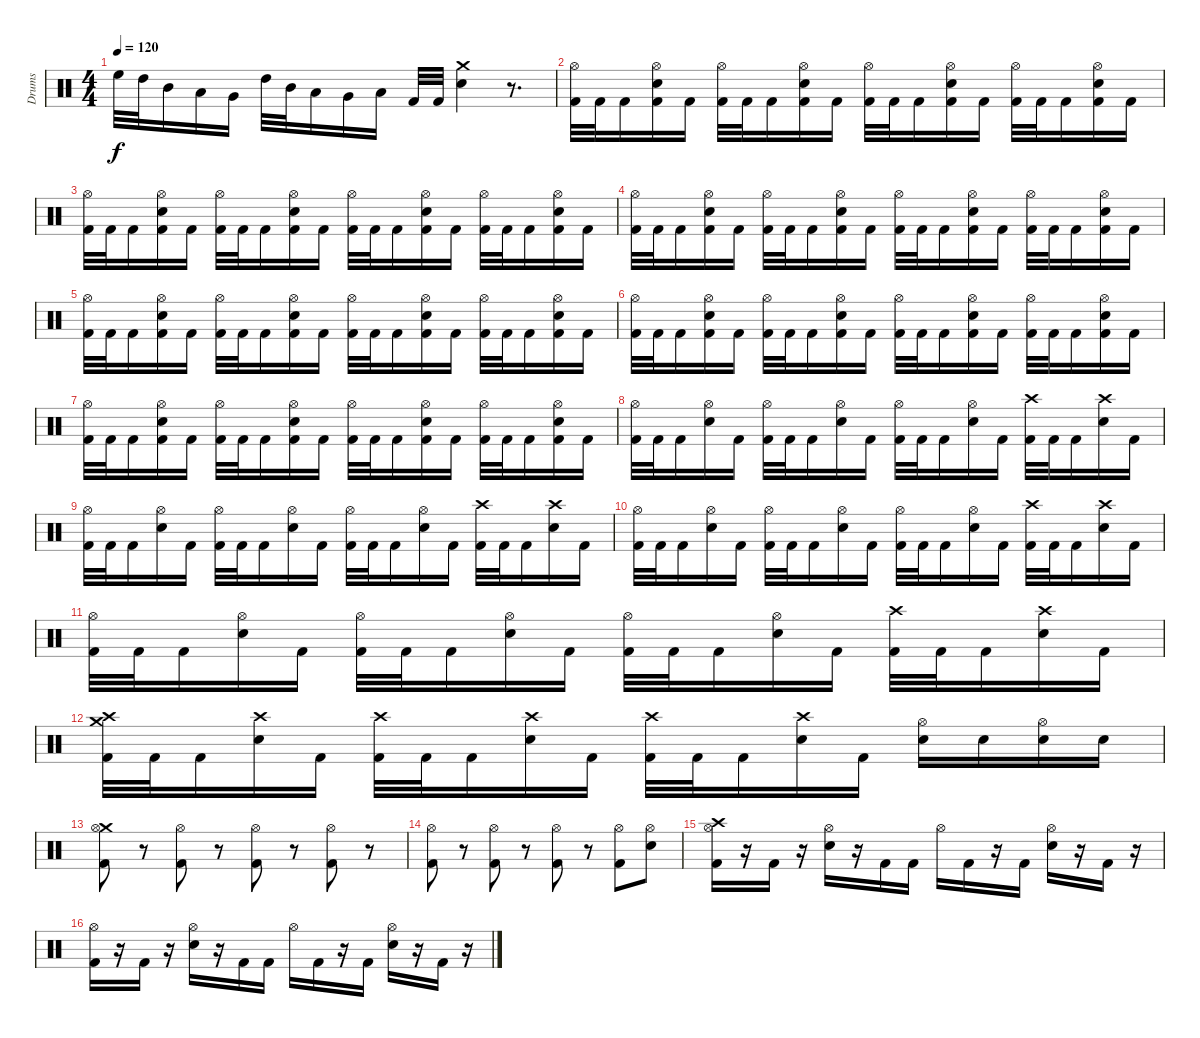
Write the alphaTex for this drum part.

\track ("Drums" "Drums") {instrument percussion}
\staff {score}
\articulation defaults
\ts (4 4)
\tempo 120
\clef neutral
\ks c "High Floor Tom (hit)".32{dy f} "High Tom (hit)".32 "Mid Tom (hit)".16 "Low Tom (hit)".16 "Very Low Tom (hit)".16 "High Tom (hit)".32 "Mid Tom (hit)".32 "Low Tom (hit)".16 "Very Low Tom (hit)".16 "Low Floor Tom (hit)".16 "Kick (hit) 2".32 "Kick (hit) 2".32
("Crash medium (hit)" "Electric Snare (hit)").4 r.8{d} |
("Hi-Hat (open)" "Kick (hit) 2").32 "Kick (hit) 2".32 "Kick (hit) 2".16 ("Hi-Hat (open)" "Electric Snare (hit)" "Kick (hit) 2").16 "Kick (hit) 2".16 ("Hi-Hat (open)" "Kick (hit) 2").32 "Kick (hit) 2".32 "Kick (hit) 2".16 ("Hi-Hat (open)" "Electric Snare (hit)" "Kick (hit) 2").16 "Kick (hit) 2".16 ("Hi-Hat (open)" "Kick (hit) 2").32 "Kick (hit) 2".32 "Kick (hit) 2".16 ("Hi-Hat (open)" "Electric Snare (hit)" "Kick (hit) 2").16 "Kick (hit) 2".16 ("Hi-Hat (open)" "Kick (hit) 2").32 "Kick (hit) 2".32 "Kick (hit) 2".16 ("Hi-Hat (open)" "Electric Snare (hit)" "Kick (hit) 2").16 "Kick (hit) 2".16 |
("Hi-Hat (open)" "Kick (hit) 2").32 "Kick (hit) 2".32 "Kick (hit) 2".16 ("Hi-Hat (open)" "Electric Snare (hit)" "Kick (hit) 2").16 "Kick (hit) 2".16 ("Hi-Hat (open)" "Kick (hit) 2").32 "Kick (hit) 2".32 "Kick (hit) 2".16 ("Hi-Hat (open)" "Electric Snare (hit)" "Kick (hit) 2").16 "Kick (hit) 2".16 ("Hi-Hat (open)" "Kick (hit) 2").32 "Kick (hit) 2".32 "Kick (hit) 2".16 ("Hi-Hat (open)" "Electric Snare (hit)" "Kick (hit) 2").16 "Kick (hit) 2".16 ("Hi-Hat (open)" "Kick (hit) 2").32 "Kick (hit) 2".32 "Kick (hit) 2".16 ("Hi-Hat (open)" "Electric Snare (hit)" "Kick (hit) 2").16 "Kick (hit) 2".16 |
("Hi-Hat (open)" "Kick (hit) 2").32 "Kick (hit) 2".32 "Kick (hit) 2".16 ("Hi-Hat (open)" "Electric Snare (hit)" "Kick (hit) 2").16 "Kick (hit) 2".16 ("Hi-Hat (open)" "Kick (hit) 2").32 "Kick (hit) 2".32 "Kick (hit) 2".16 ("Hi-Hat (open)" "Electric Snare (hit)" "Kick (hit) 2").16 "Kick (hit) 2".16 ("Hi-Hat (open)" "Kick (hit) 2").32 "Kick (hit) 2".32 "Kick (hit) 2".16 ("Hi-Hat (open)" "Electric Snare (hit)" "Kick (hit) 2").16 "Kick (hit) 2".16 ("Hi-Hat (open)" "Kick (hit) 2").32 "Kick (hit) 2".32 "Kick (hit) 2".16 ("Hi-Hat (open)" "Electric Snare (hit)" "Kick (hit) 2").16 "Kick (hit) 2".16 |
("Hi-Hat (open)" "Kick (hit) 2").32 "Kick (hit) 2".32 "Kick (hit) 2".16 ("Hi-Hat (open)" "Electric Snare (hit)" "Kick (hit) 2").16 "Kick (hit) 2".16 ("Hi-Hat (open)" "Kick (hit) 2").32 "Kick (hit) 2".32 "Kick (hit) 2".16 ("Hi-Hat (open)" "Electric Snare (hit)" "Kick (hit) 2").16 "Kick (hit) 2".16 ("Hi-Hat (open)" "Kick (hit) 2").32 "Kick (hit) 2".32 "Kick (hit) 2".16 ("Hi-Hat (open)" "Electric Snare (hit)" "Kick (hit) 2").16 "Kick (hit) 2".16 ("Hi-Hat (open)" "Kick (hit) 2").32 "Kick (hit) 2".32 "Kick (hit) 2".16 ("Hi-Hat (open)" "Electric Snare (hit)" "Kick (hit) 2").16 "Kick (hit) 2".16 |
("Hi-Hat (open)" "Kick (hit) 2").32 "Kick (hit) 2".32 "Kick (hit) 2".16 ("Hi-Hat (open)" "Electric Snare (hit)" "Kick (hit) 2").16 "Kick (hit) 2".16 ("Hi-Hat (open)" "Kick (hit) 2").32 "Kick (hit) 2".32 "Kick (hit) 2".16 ("Hi-Hat (open)" "Electric Snare (hit)" "Kick (hit) 2").16 "Kick (hit) 2".16 ("Hi-Hat (open)" "Kick (hit) 2").32 "Kick (hit) 2".32 "Kick (hit) 2".16 ("Hi-Hat (open)" "Electric Snare (hit)" "Kick (hit) 2").16 "Kick (hit) 2".16 ("Hi-Hat (open)" "Kick (hit) 2").32 "Kick (hit) 2".32 "Kick (hit) 2".16 ("Hi-Hat (open)" "Electric Snare (hit)" "Kick (hit) 2").16 "Kick (hit) 2".16 |
("Hi-Hat (open)" "Kick (hit) 2").32 "Kick (hit) 2".32 "Kick (hit) 2".16 ("Hi-Hat (open)" "Electric Snare (hit)" "Kick (hit) 2").16 "Kick (hit) 2".16 ("Hi-Hat (open)" "Kick (hit) 2").32 "Kick (hit) 2".32 "Kick (hit) 2".16 ("Hi-Hat (open)" "Electric Snare (hit)" "Kick (hit) 2").16 "Kick (hit) 2".16 ("Hi-Hat (open)" "Kick (hit) 2").32 "Kick (hit) 2".32 "Kick (hit) 2".16 ("Hi-Hat (open)" "Electric Snare (hit)" "Kick (hit) 2").16 "Kick (hit) 2".16 ("Hi-Hat (open)" "Kick (hit) 2").32 "Kick (hit) 2".32 "Kick (hit) 2".16 ("Hi-Hat (open)" "Electric Snare (hit)" "Kick (hit) 2").16 "Kick (hit) 2".16 |
("Hi-Hat (open)" "Kick (hit) 2").32 "Kick (hit) 2".32 "Kick (hit) 2".16 ("Hi-Hat (open)" "Electric Snare (hit)").16 "Kick (hit) 2".16 ("Hi-Hat (open)" "Kick (hit) 2").32 "Kick (hit) 2".32 "Kick (hit) 2".16 ("Hi-Hat (open)" "Electric Snare (hit)").16 "Kick (hit) 2".16 ("Hi-Hat (open)" "Kick (hit) 2").32 "Kick (hit) 2".32 "Kick (hit) 2".16 ("Hi-Hat (open)" "Electric Snare (hit)").16 "Kick (hit) 2".16 ("Crash high (hit)" "Kick (hit) 2").32 "Kick (hit) 2".32 "Kick (hit) 2".16 ("Crash high (hit)" "Electric Snare (hit)").16 "Kick (hit) 2".16 |
("Hi-Hat (open)" "Kick (hit) 2").32 "Kick (hit) 2".32 "Kick (hit) 2".16 ("Hi-Hat (open)" "Electric Snare (hit)").16 "Kick (hit) 2".16 ("Hi-Hat (open)" "Kick (hit) 2").32 "Kick (hit) 2".32 "Kick (hit) 2".16 ("Hi-Hat (open)" "Electric Snare (hit)").16 "Kick (hit) 2".16 ("Hi-Hat (open)" "Kick (hit) 2").32 "Kick (hit) 2".32 "Kick (hit) 2".16 ("Hi-Hat (open)" "Electric Snare (hit)").16 "Kick (hit) 2".16 ("Crash high (hit)" "Kick (hit) 2").32 "Kick (hit) 2".32 "Kick (hit) 2".16 ("Crash high (hit)" "Electric Snare (hit)").16 "Kick (hit) 2".16 |
("Hi-Hat (open)" "Kick (hit) 2").32 "Kick (hit) 2".32 "Kick (hit) 2".16 ("Hi-Hat (open)" "Electric Snare (hit)").16 "Kick (hit) 2".16 ("Hi-Hat (open)" "Kick (hit) 2").32 "Kick (hit) 2".32 "Kick (hit) 2".16 ("Hi-Hat (open)" "Electric Snare (hit)").16 "Kick (hit) 2".16 ("Hi-Hat (open)" "Kick (hit) 2").32 "Kick (hit) 2".32 "Kick (hit) 2".16 ("Hi-Hat (open)" "Electric Snare (hit)").16 "Kick (hit) 2".16 ("Crash high (hit)" "Kick (hit) 2").32 "Kick (hit) 2".32 "Kick (hit) 2".16 ("Crash high (hit)" "Electric Snare (hit)").16 "Kick (hit) 2".16 |
("Hi-Hat (open)" "Kick (hit) 2").32 "Kick (hit) 2".32 "Kick (hit) 2".16 ("Hi-Hat (open)" "Electric Snare (hit)").16 "Kick (hit) 2".16 ("Hi-Hat (open)" "Kick (hit) 2").32 "Kick (hit) 2".32 "Kick (hit) 2".16 ("Hi-Hat (open)" "Electric Snare (hit)").16 "Kick (hit) 2".16 ("Hi-Hat (open)" "Kick (hit) 2").32 "Kick (hit) 2".32 "Kick (hit) 2".16 ("Hi-Hat (open)" "Electric Snare (hit)").16 "Kick (hit) 2".16 ("Crash high (hit)" "Kick (hit) 2").32 "Kick (hit) 2".32 "Kick (hit) 2".16 ("Crash high (hit)" "Electric Snare (hit)").16 "Kick (hit) 2".16 |
("Crash medium (hit)" "Crash high (hit)" "Kick (hit) 2").32 "Kick (hit) 2".32 "Kick (hit) 2".16 ("Crash high (hit)" "Electric Snare (hit)").16 "Kick (hit) 2".16 ("Crash high (hit)" "Kick (hit) 2").32 "Kick (hit) 2".32 "Kick (hit) 2".16 ("Crash high (hit)" "Electric Snare (hit)").16 "Kick (hit) 2".16 ("Crash high (hit)" "Kick (hit) 2").32 "Kick (hit) 2".32 "Kick (hit) 2".16 ("Crash high (hit)" "Electric Snare (hit)").16 "Kick (hit) 2".16 ("Hi-Hat (open)" "Electric Snare (hit)").16 "Electric Snare (hit)".16 ("Hi-Hat (open)" "Electric Snare (hit)").16 "Electric Snare (hit)".16 |
("Crash medium (hit)" "Hi-Hat (open)" "Kick (hit) 2").8 r.8 ("Hi-Hat (open)" "Kick (hit) 2").8 r.8 ("Hi-Hat (open)" "Kick (hit) 2").8 r.8 ("Hi-Hat (open)" "Kick (hit) 2").8 r.8 |
("Hi-Hat (open)" "Kick (hit) 2").8 r.8 ("Hi-Hat (open)" "Kick (hit) 2").8 r.8 ("Hi-Hat (open)" "Kick (hit) 2").8 r.8 ("Hi-Hat (open)" "Kick (hit) 2").8 ("Hi-Hat (open)" "Electric Snare (hit)").8 |
("Crash high (hit)" "Hi-Hat (open)" "Kick (hit) 2").16 r.16 "Kick (hit) 2".16 r.16 ("Hi-Hat (open)" "Electric Snare (hit)").16 r.16 "Kick (hit) 2".16 "Kick (hit) 2".16 "Hi-Hat (open)".16 "Kick (hit) 2".16 r.16 "Kick (hit) 2".16 ("Hi-Hat (open)" "Electric Snare (hit)").16 r.16 "Kick (hit) 2".16 r.16 |
("Hi-Hat (open)" "Kick (hit) 2").16 r.16 "Kick (hit) 2".16 r.16 ("Hi-Hat (open)" "Electric Snare (hit)").16 r.16 "Kick (hit) 2".16 "Kick (hit) 2".16 "Hi-Hat (open)".16 "Kick (hit) 2".16 r.16 "Kick (hit) 2".16 ("Hi-Hat (open)" "Electric Snare (hit)").16 r.16 "Kick (hit) 2".16 r.16
